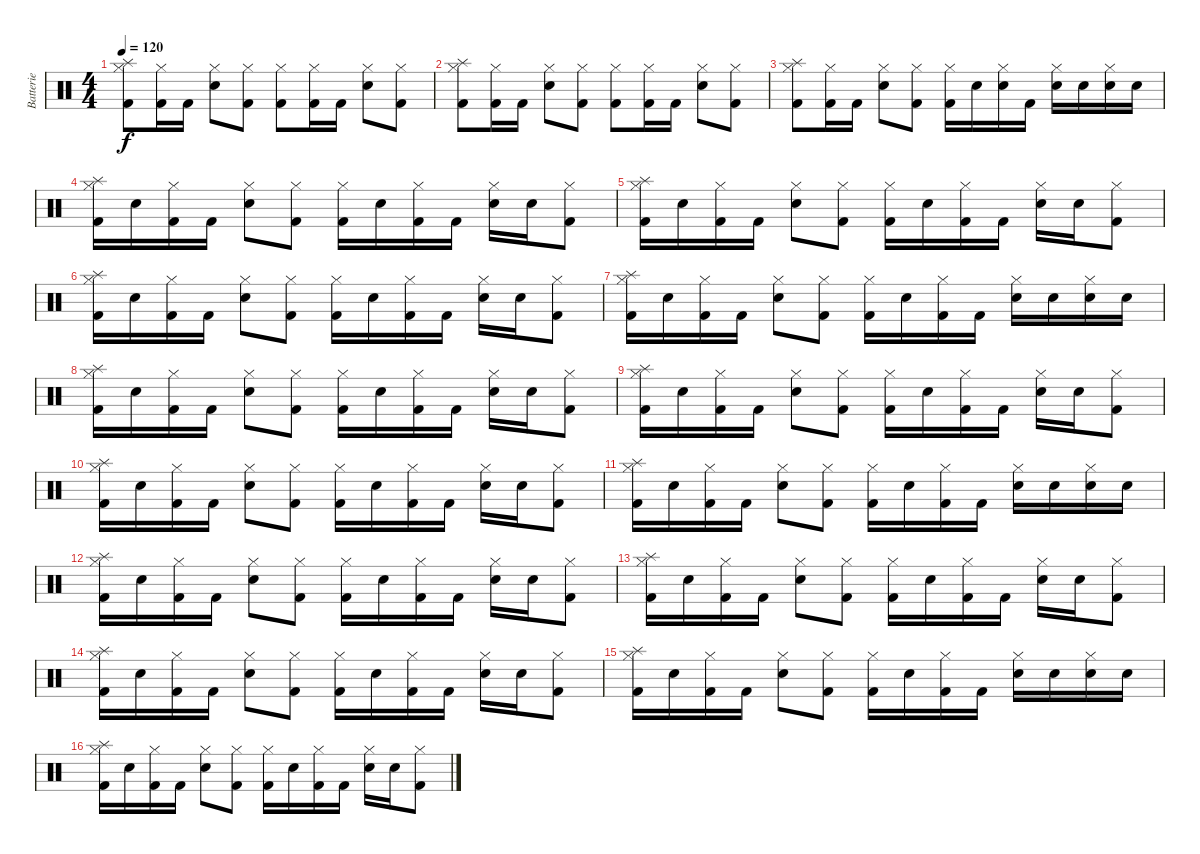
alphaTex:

\track ("Batterie" "Batterie") {instrument percussion}
\staff {score}
\articulation defaults
\ts (4 4)
\tempo 120
\clef neutral
\ks c
("Splash (hit)" "Hi-Hat (closed)" "Kick (hit) 2").8{dy f} ("Hi-Hat (closed)" "Kick (hit) 2").16 "Kick (hit) 2".16 ("Hi-Hat (closed)" "Snare (hit) 2").8 ("Hi-Hat (closed)" "Kick (hit) 2").8 ("Hi-Hat (closed)" "Kick (hit) 2").8 ("Hi-Hat (closed)" "Kick (hit) 2").16 "Kick (hit) 2".16 ("Hi-Hat (closed)" "Snare (hit) 2").8 ("Hi-Hat (closed)" "Kick (hit) 2").8 |
("Splash (hit)" "Hi-Hat (closed)" "Kick (hit) 2").8 ("Hi-Hat (closed)" "Kick (hit) 2").16 "Kick (hit) 2".16 ("Hi-Hat (closed)" "Snare (hit) 2").8 ("Hi-Hat (closed)" "Kick (hit) 2").8 ("Hi-Hat (closed)" "Kick (hit) 2").8 ("Hi-Hat (closed)" "Kick (hit) 2").16 "Kick (hit) 2".16 ("Hi-Hat (closed)" "Snare (hit) 2").8 ("Hi-Hat (closed)" "Kick (hit) 2").8 |
("Splash (hit)" "Hi-Hat (closed)" "Kick (hit) 2").8 ("Hi-Hat (closed)" "Kick (hit) 2").16 "Kick (hit) 2".16 ("Hi-Hat (closed)" "Snare (hit) 2").8 ("Hi-Hat (closed)" "Kick (hit) 2").8 ("Hi-Hat (closed)" "Kick (hit) 2").16 "Snare (hit) 2".16 ("Hi-Hat (closed)" "Snare (hit) 2").16 "Kick (hit) 2".16 ("Hi-Hat (closed)" "Snare (hit) 2").16 "Snare (hit) 2".16 ("Hi-Hat (closed)" "Snare (hit) 2").16 "Snare (hit) 2".16 |
("Splash (hit)" "Hi-Hat (closed)" "Kick (hit) 2").16 "Snare (hit) 2".16 ("Hi-Hat (closed)" "Kick (hit) 2").16 "Kick (hit) 2".16 ("Hi-Hat (closed)" "Snare (hit) 2").8 ("Hi-Hat (closed)" "Kick (hit) 2").8 ("Hi-Hat (closed)" "Kick (hit) 2").16 "Snare (hit) 2".16 ("Hi-Hat (closed)" "Kick (hit) 2").16 "Kick (hit) 2".16 ("Hi-Hat (closed)" "Snare (hit) 2").16 "Snare (hit) 2".16 ("Hi-Hat (closed)" "Kick (hit) 2").8 |
("Splash (hit)" "Hi-Hat (closed)" "Kick (hit) 2").16 "Snare (hit) 2".16 ("Hi-Hat (closed)" "Kick (hit) 2").16 "Kick (hit) 2".16 ("Hi-Hat (closed)" "Snare (hit) 2").8 ("Hi-Hat (closed)" "Kick (hit) 2").8 ("Hi-Hat (closed)" "Kick (hit) 2").16 "Snare (hit) 2".16 ("Hi-Hat (closed)" "Kick (hit) 2").16 "Kick (hit) 2".16 ("Hi-Hat (closed)" "Snare (hit) 2").16 "Snare (hit) 2".16 ("Hi-Hat (closed)" "Kick (hit) 2").8 |
("Splash (hit)" "Hi-Hat (closed)" "Kick (hit) 2").16 "Snare (hit) 2".16 ("Hi-Hat (closed)" "Kick (hit) 2").16 "Kick (hit) 2".16 ("Hi-Hat (closed)" "Snare (hit) 2").8 ("Hi-Hat (closed)" "Kick (hit) 2").8 ("Hi-Hat (closed)" "Kick (hit) 2").16 "Snare (hit) 2".16 ("Hi-Hat (closed)" "Kick (hit) 2").16 "Kick (hit) 2".16 ("Hi-Hat (closed)" "Snare (hit) 2").16 "Snare (hit) 2".16 ("Hi-Hat (closed)" "Kick (hit) 2").8 |
("Splash (hit)" "Hi-Hat (closed)" "Kick (hit) 2").16 "Snare (hit) 2".16 ("Hi-Hat (closed)" "Kick (hit) 2").16 "Kick (hit) 2".16 ("Hi-Hat (closed)" "Snare (hit) 2").8 ("Hi-Hat (closed)" "Kick (hit) 2").8 ("Hi-Hat (closed)" "Kick (hit) 2").16 "Snare (hit) 2".16 ("Hi-Hat (closed)" "Kick (hit) 2").16 "Kick (hit) 2".16 ("Hi-Hat (closed)" "Snare (hit) 2").16 "Snare (hit) 2".16 ("Hi-Hat (closed)" "Snare (hit) 2").16 "Snare (hit) 2".16 |
("Splash (hit)" "Hi-Hat (closed)" "Kick (hit) 2").16 "Snare (hit) 2".16 ("Hi-Hat (closed)" "Kick (hit) 2").16 "Kick (hit) 2".16 ("Hi-Hat (closed)" "Snare (hit) 2").8 ("Hi-Hat (closed)" "Kick (hit) 2").8 ("Hi-Hat (closed)" "Kick (hit) 2").16 "Snare (hit) 2".16 ("Hi-Hat (closed)" "Kick (hit) 2").16 "Kick (hit) 2".16 ("Hi-Hat (closed)" "Snare (hit) 2").16 "Snare (hit) 2".16 ("Hi-Hat (closed)" "Kick (hit) 2").8 |
("Splash (hit)" "Hi-Hat (closed)" "Kick (hit) 2").16 "Snare (hit) 2".16 ("Hi-Hat (closed)" "Kick (hit) 2").16 "Kick (hit) 2".16 ("Hi-Hat (closed)" "Snare (hit) 2").8 ("Hi-Hat (closed)" "Kick (hit) 2").8 ("Hi-Hat (closed)" "Kick (hit) 2").16 "Snare (hit) 2".16 ("Hi-Hat (closed)" "Kick (hit) 2").16 "Kick (hit) 2".16 ("Hi-Hat (closed)" "Snare (hit) 2").16 "Snare (hit) 2".16 ("Hi-Hat (closed)" "Kick (hit) 2").8 |
("Splash (hit)" "Hi-Hat (closed)" "Kick (hit) 2").16 "Snare (hit) 2".16 ("Hi-Hat (closed)" "Kick (hit) 2").16 "Kick (hit) 2".16 ("Hi-Hat (closed)" "Snare (hit) 2").8 ("Hi-Hat (closed)" "Kick (hit) 2").8 ("Hi-Hat (closed)" "Kick (hit) 2").16 "Snare (hit) 2".16 ("Hi-Hat (closed)" "Kick (hit) 2").16 "Kick (hit) 2".16 ("Hi-Hat (closed)" "Snare (hit) 2").16 "Snare (hit) 2".16 ("Hi-Hat (closed)" "Kick (hit) 2").8 |
("Splash (hit)" "Hi-Hat (closed)" "Kick (hit) 2").16 "Snare (hit) 2".16 ("Hi-Hat (closed)" "Kick (hit) 2").16 "Kick (hit) 2".16 ("Hi-Hat (closed)" "Snare (hit) 2").8 ("Hi-Hat (closed)" "Kick (hit) 2").8 ("Hi-Hat (closed)" "Kick (hit) 2").16 "Snare (hit) 2".16 ("Hi-Hat (closed)" "Kick (hit) 2").16 "Kick (hit) 2".16 ("Hi-Hat (closed)" "Snare (hit) 2").16 "Snare (hit) 2".16 ("Hi-Hat (closed)" "Snare (hit) 2").16 "Snare (hit) 2".16 |
("Splash (hit)" "Hi-Hat (closed)" "Kick (hit) 2").16 "Snare (hit) 2".16 ("Hi-Hat (closed)" "Kick (hit) 2").16 "Kick (hit) 2".16 ("Hi-Hat (closed)" "Snare (hit) 2").8 ("Hi-Hat (closed)" "Kick (hit) 2").8 ("Hi-Hat (closed)" "Kick (hit) 2").16 "Snare (hit) 2".16 ("Hi-Hat (closed)" "Kick (hit) 2").16 "Kick (hit) 2".16 ("Hi-Hat (closed)" "Snare (hit) 2").16 "Snare (hit) 2".16 ("Hi-Hat (closed)" "Kick (hit) 2").8 |
("Splash (hit)" "Hi-Hat (closed)" "Kick (hit) 2").16 "Snare (hit) 2".16 ("Hi-Hat (closed)" "Kick (hit) 2").16 "Kick (hit) 2".16 ("Hi-Hat (closed)" "Snare (hit) 2").8 ("Hi-Hat (closed)" "Kick (hit) 2").8 ("Hi-Hat (closed)" "Kick (hit) 2").16 "Snare (hit) 2".16 ("Hi-Hat (closed)" "Kick (hit) 2").16 "Kick (hit) 2".16 ("Hi-Hat (closed)" "Snare (hit) 2").16 "Snare (hit) 2".16 ("Hi-Hat (closed)" "Kick (hit) 2").8 |
("Splash (hit)" "Hi-Hat (closed)" "Kick (hit) 2").16 "Snare (hit) 2".16 ("Hi-Hat (closed)" "Kick (hit) 2").16 "Kick (hit) 2".16 ("Hi-Hat (closed)" "Snare (hit) 2").8 ("Hi-Hat (closed)" "Kick (hit) 2").8 ("Hi-Hat (closed)" "Kick (hit) 2").16 "Snare (hit) 2".16 ("Hi-Hat (closed)" "Kick (hit) 2").16 "Kick (hit) 2".16 ("Hi-Hat (closed)" "Snare (hit) 2").16 "Snare (hit) 2".16 ("Hi-Hat (closed)" "Kick (hit) 2").8 |
("Splash (hit)" "Hi-Hat (closed)" "Kick (hit) 2").16 "Snare (hit) 2".16 ("Hi-Hat (closed)" "Kick (hit) 2").16 "Kick (hit) 2".16 ("Hi-Hat (closed)" "Snare (hit) 2").8 ("Hi-Hat (closed)" "Kick (hit) 2").8 ("Hi-Hat (closed)" "Kick (hit) 2").16 "Snare (hit) 2".16 ("Hi-Hat (closed)" "Kick (hit) 2").16 "Kick (hit) 2".16 ("Hi-Hat (closed)" "Snare (hit) 2").16 "Snare (hit) 2".16 ("Hi-Hat (closed)" "Snare (hit) 2").16 "Snare (hit) 2".16 |
("Splash (hit)" "Hi-Hat (closed)" "Kick (hit) 2").16 "Snare (hit) 2".16 ("Hi-Hat (closed)" "Kick (hit) 2").16 "Kick (hit) 2".16 ("Hi-Hat (closed)" "Snare (hit) 2").8 ("Hi-Hat (closed)" "Kick (hit) 2").8 ("Hi-Hat (closed)" "Kick (hit) 2").16 "Snare (hit) 2".16 ("Hi-Hat (closed)" "Kick (hit) 2").16 "Kick (hit) 2".16 ("Hi-Hat (closed)" "Snare (hit) 2").16 "Snare (hit) 2".16 ("Hi-Hat (closed)" "Kick (hit) 2").8
